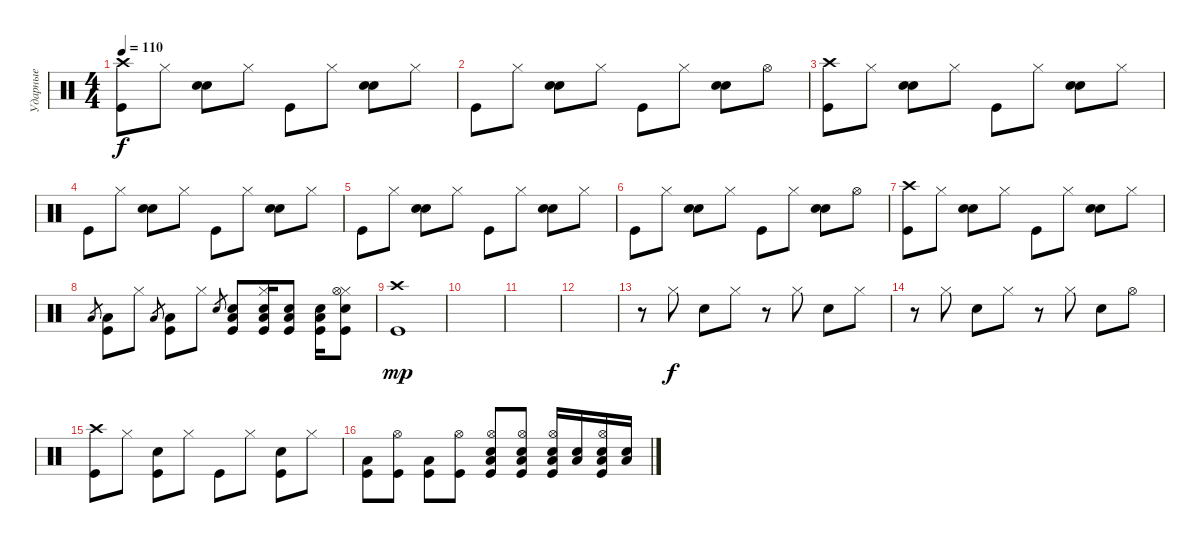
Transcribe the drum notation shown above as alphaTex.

\track ("Ударные" "Ударные") {instrument percussion}
\staff
\articulation defaults
\ts (4 4)
\tempo 110
\clef neutral
\ks c
("Crash high (hit)" "Kick (hit)").8{dy f} "Hi-Hat (closed)".8 ("Hand Clap (hit)" "Snare (hit) 2").8 "Hi-Hat (closed)".8 "Kick (hit)".8 "Hi-Hat (closed)".8 ("Hand Clap (hit)" "Snare (hit) 2").8 "Hi-Hat (closed)".8 |
"Kick (hit)".8 "Hi-Hat (closed)".8 ("Hand Clap (hit)" "Snare (hit) 2").8 "Hi-Hat (closed)".8 "Kick (hit)".8 "Hi-Hat (closed)".8 ("Hand Clap (hit)" "Snare (hit) 2").8 "Hi-Hat (open)".8 |
("Crash high (hit)" "Kick (hit)").8 "Hi-Hat (closed)".8 ("Hand Clap (hit)" "Snare (hit) 2").8 "Hi-Hat (closed)".8 "Kick (hit)".8 "Hi-Hat (closed)".8 ("Hand Clap (hit)" "Snare (hit) 2").8 "Hi-Hat (closed)".8 |
"Kick (hit)".8 "Hi-Hat (closed)".8 ("Hand Clap (hit)" "Snare (hit) 2").8 "Hi-Hat (closed)".8 "Kick (hit)".8 "Hi-Hat (closed)".8 ("Hand Clap (hit)" "Snare (hit) 2").8 "Hi-Hat (closed)".8 |
"Kick (hit)".8 "Hi-Hat (closed)".8 ("Hand Clap (hit)" "Snare (hit) 2").8 "Hi-Hat (closed)".8 "Kick (hit)".8 "Hi-Hat (closed)".8 ("Hand Clap (hit)" "Snare (hit) 2").8 "Hi-Hat (closed)".8 |
"Kick (hit)".8 "Hi-Hat (closed)".8 ("Hand Clap (hit)" "Snare (hit) 2").8 "Hi-Hat (closed)".8 "Kick (hit)".8 "Hi-Hat (closed)".8 ("Hand Clap (hit)" "Snare (hit) 2").8 "Hi-Hat (open)".8 |
("Crash high (hit)" "Kick (hit)").8 "Hi-Hat (closed)".8 ("Hand Clap (hit)" "Snare (hit) 2").8 "Hi-Hat (closed)".8 "Kick (hit)".8 "Hi-Hat (closed)".8 ("Hand Clap (hit)" "Snare (hit) 2").8 "Hi-Hat (closed)".8 |
"Low Floor Tom (hit)".8{gr} ("Low Floor Tom (hit)" "Kick (hit)").8 "Hi-Hat (closed)".8 "Low Floor Tom (hit)".8{gr} ("Low Floor Tom (hit)" "Kick (hit)").8 "Hi-Hat (closed)".8 "Snare (hit) 2".8{gr} ("Low Floor Tom (hit)" "Snare (hit) 2" "Kick (hit)").8 ("Hi-Hat (closed)" "Low Floor Tom (hit)" "Snare (hit) 2" "Kick (hit)").16 ("Low Floor Tom (hit)" "Snare (hit) 2" "Kick (hit)").8 ("Low Floor Tom (hit)" "Snare (hit) 2" "Kick (hit)").16 ("Hi-Hat (closed)" "Hi-Hat (open)" "Snare (hit) 2" "Kick (hit)").8 |
("Crash high (hit)" "Kick (hit)").1{dy mp} |
|
|
|
r.8 "Hi-Hat (closed)".8{dy f} "Hand Clap (hit)".8 "Hi-Hat (closed)".8 r.8 "Hi-Hat (closed)".8 "Hand Clap (hit)".8 "Hi-Hat (closed)".8 |
r.8 "Hi-Hat (closed)".8 "Hand Clap (hit)".8 "Hi-Hat (closed)".8 r.8 "Hi-Hat (closed)".8 "Hand Clap (hit)".8 "Hi-Hat (open)".8 |
("Crash high (hit)" "Kick (hit)").8 "Hi-Hat (closed)".8 ("Hand Clap (hit)" "Kick (hit)").8 "Hi-Hat (closed)".8 "Kick (hit)".8 "Hi-Hat (closed)".8 ("Hand Clap (hit)" "Kick (hit)").8 "Hi-Hat (closed)".8 |
("Low Floor Tom (hit)" "Kick (hit)").8 ("Hi-Hat (open)" "Kick (hit)").8 ("Low Floor Tom (hit)" "Kick (hit)").8 ("Hi-Hat (open)" "Kick (hit)").8 ("Hi-Hat (open)" "Low Floor Tom (hit)" "Snare (hit) 2" "Kick (hit)").8 ("Hi-Hat (open)" "Low Floor Tom (hit)" "Snare (hit) 2" "Kick (hit)").8 ("Hi-Hat (open)" "Low Floor Tom (hit)" "Snare (hit) 2" "Kick (hit)").16 ("Low Floor Tom (hit)" "Snare (hit) 2").16 ("Hi-Hat (open)" "Low Floor Tom (hit)" "Snare (hit) 2" "Kick (hit)").16 ("Low Floor Tom (hit)" "Snare (hit) 2").16
